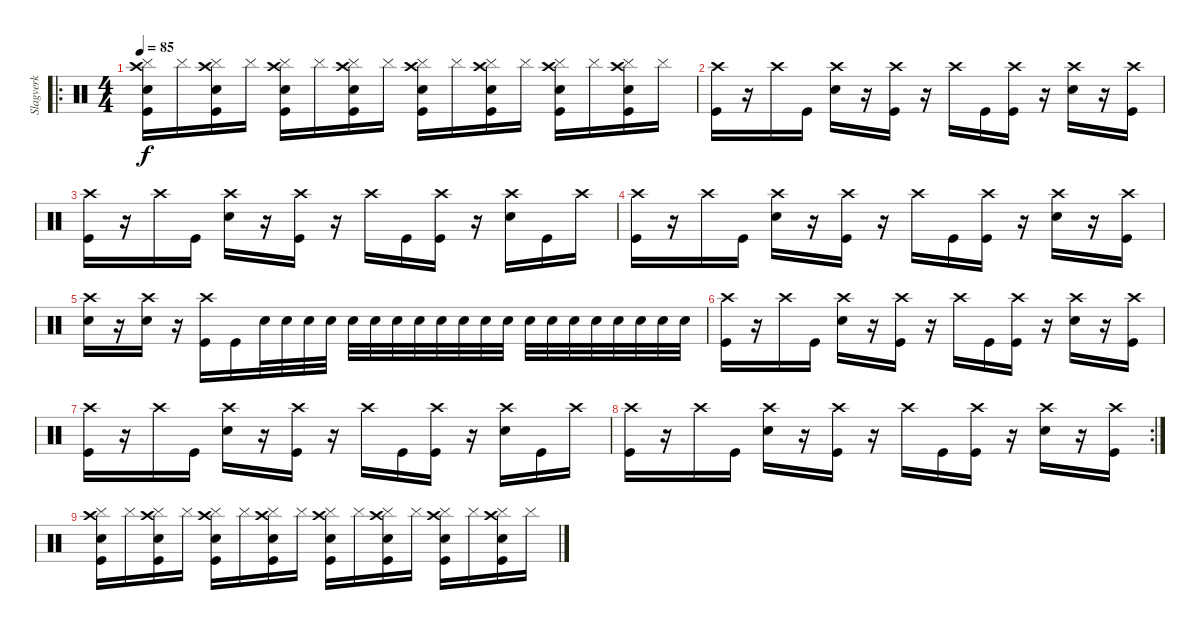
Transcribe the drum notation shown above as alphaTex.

\track ("Slagverk" "Slagverk") {instrument percussion}
\staff {score}
\articulation defaults
\ro
\ts (4 4)
\tempo 85
\clef neutral
\ks c
("Cymbal (hit)" "Electric Snare (hit)" "Kick (hit)" "Crash high (hit)").16{dy f} "Cymbal (hit)".16 ("Cymbal (hit)" "Electric Snare (hit)" "Kick (hit)" "Crash high (hit)").16 "Cymbal (hit)".16 ("Cymbal (hit)" "Electric Snare (hit)" "Kick (hit)" "Crash high (hit)").16 "Cymbal (hit)".16 ("Cymbal (hit)" "Electric Snare (hit)" "Kick (hit)" "Crash high (hit)").16 "Cymbal (hit)".16 ("Cymbal (hit)" "Electric Snare (hit)" "Kick (hit)" "Crash high (hit)").16 "Cymbal (hit)".16 ("Cymbal (hit)" "Electric Snare (hit)" "Kick (hit)" "Crash high (hit)").16 "Cymbal (hit)".16 ("Cymbal (hit)" "Electric Snare (hit)" "Kick (hit)" "Crash high (hit)").16 "Cymbal (hit)".16 ("Cymbal (hit)" "Electric Snare (hit)" "Kick (hit)" "Crash high (hit)").16 "Cymbal (hit)".16 |
("Crash high (hit)" "Kick (hit)").16 r.16 "Crash high (hit)".16 "Kick (hit)".16 ("Crash high (hit)" "Electric Snare (hit)").16 r.16 ("Crash high (hit)" "Kick (hit)").16 r.16 "Crash high (hit)".16 "Kick (hit)".16 ("Crash high (hit)" "Kick (hit)").16 r.16 ("Crash high (hit)" "Electric Snare (hit)").16 r.16 ("Crash high (hit)" "Kick (hit)").16 |
("Crash high (hit)" "Kick (hit)").16 r.16 "Crash high (hit)".16 "Kick (hit)".16 ("Crash high (hit)" "Electric Snare (hit)").16 r.16 ("Crash high (hit)" "Kick (hit)").16 r.16 "Crash high (hit)".16 "Kick (hit)".16 ("Crash high (hit)" "Kick (hit)").16 r.16 ("Crash high (hit)" "Electric Snare (hit)").16 "Kick (hit)".16 "Crash high (hit)".16 |
("Crash high (hit)" "Kick (hit)").16 r.16 "Crash high (hit)".16 "Kick (hit)".16 ("Crash high (hit)" "Electric Snare (hit)").16 r.16 ("Crash high (hit)" "Kick (hit)").16 r.16 "Crash high (hit)".16 "Kick (hit)".16 ("Crash high (hit)" "Kick (hit)").16 r.16 ("Crash high (hit)" "Electric Snare (hit)").16 r.16 ("Crash high (hit)" "Kick (hit)").16 |
("Crash high (hit)" "Electric Snare (hit)").16 r.16 ("Crash high (hit)" "Electric Snare (hit)").16 r.16 ("Crash high (hit)" "Kick (hit)").16 "Kick (hit)".16 "Electric Snare (hit)".32 "Electric Snare (hit)".32 "Electric Snare (hit)".32 "Electric Snare (hit)".32 "Snare (hit) 2".32 "Electric Snare (hit)".32 "Electric Snare (hit)".32 "Snare (hit) 2".32 "Electric Snare (hit)".32 "Electric Snare (hit)".32 "Snare (hit) 2".32 "Electric Snare (hit)".32 "Electric Snare (hit)".32 "Electric Snare (hit)".32 "Electric Snare (hit)".32 "Electric Snare (hit)".32 "Snare (hit) 2".32 "Electric Snare (hit)".32 "Electric Snare (hit)".32 "Electric Snare (hit)".32 |
("Crash high (hit)" "Kick (hit)").16 r.16 "Crash high (hit)".16 "Kick (hit)".16 ("Crash high (hit)" "Electric Snare (hit)").16 r.16 ("Crash high (hit)" "Kick (hit)").16 r.16 "Crash high (hit)".16 "Kick (hit)".16 ("Crash high (hit)" "Kick (hit)").16 r.16 ("Crash high (hit)" "Electric Snare (hit)").16 r.16 ("Crash high (hit)" "Kick (hit)").16 |
("Crash high (hit)" "Kick (hit)").16 r.16 "Crash high (hit)".16 "Kick (hit)".16 ("Crash high (hit)" "Electric Snare (hit)").16 r.16 ("Crash high (hit)" "Kick (hit)").16 r.16 "Crash high (hit)".16 "Kick (hit)".16 ("Crash high (hit)" "Kick (hit)").16 r.16 ("Crash high (hit)" "Electric Snare (hit)").16 "Kick (hit)".16 "Crash high (hit)".16 |
\rc 2
("Crash high (hit)" "Kick (hit)").16 r.16 "Crash high (hit)".16 "Kick (hit)".16 ("Crash high (hit)" "Electric Snare (hit)").16 r.16 ("Crash high (hit)" "Kick (hit)").16 r.16 "Crash high (hit)".16 "Kick (hit)".16 ("Crash high (hit)" "Kick (hit)").16 r.16 ("Crash high (hit)" "Electric Snare (hit)").16 r.16 ("Crash high (hit)" "Kick (hit)").16 |
("Cymbal (hit)" "Electric Snare (hit)" "Kick (hit)" "Crash high (hit)").16 "Cymbal (hit)".16 ("Cymbal (hit)" "Electric Snare (hit)" "Kick (hit)" "Crash high (hit)").16 "Cymbal (hit)".16 ("Cymbal (hit)" "Electric Snare (hit)" "Kick (hit)" "Crash high (hit)").16 "Cymbal (hit)".16 ("Cymbal (hit)" "Electric Snare (hit)" "Kick (hit)" "Crash high (hit)").16 "Cymbal (hit)".16 ("Cymbal (hit)" "Electric Snare (hit)" "Kick (hit)" "Crash high (hit)").16 "Cymbal (hit)".16 ("Cymbal (hit)" "Electric Snare (hit)" "Kick (hit)" "Crash high (hit)").16 "Cymbal (hit)".16 ("Cymbal (hit)" "Electric Snare (hit)" "Kick (hit)" "Crash high (hit)").16 "Cymbal (hit)".16 ("Cymbal (hit)" "Electric Snare (hit)" "Kick (hit)" "Crash high (hit)").16 "Cymbal (hit)".16
